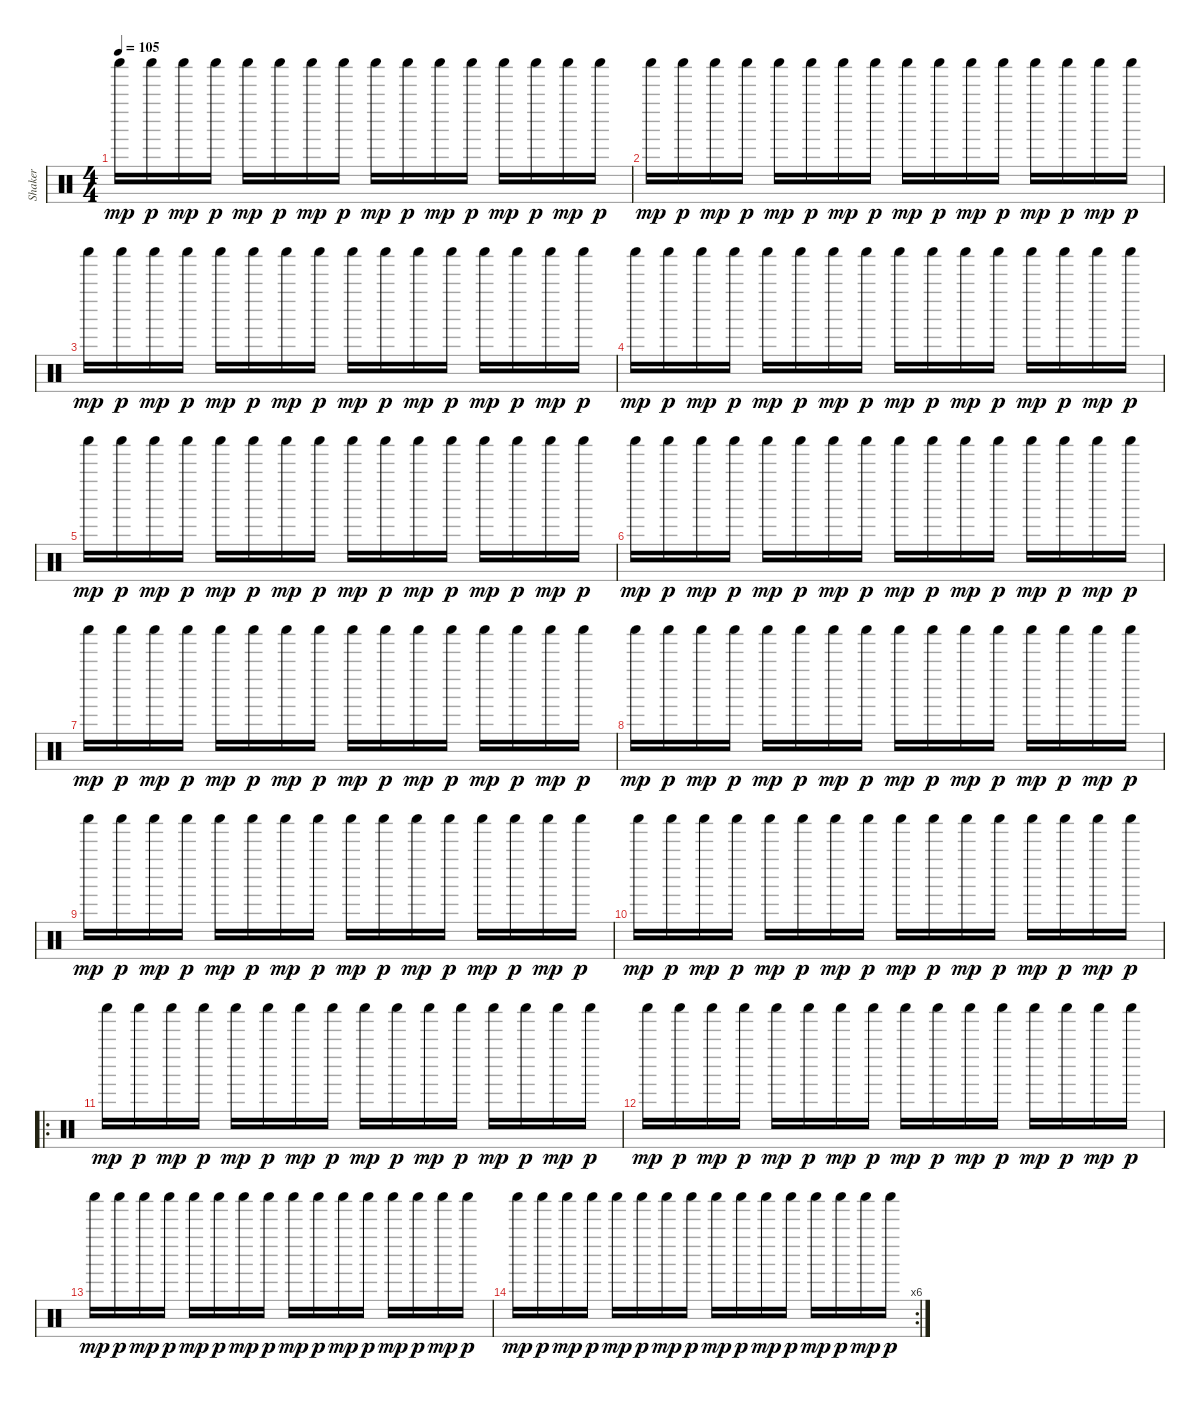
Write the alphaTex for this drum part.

\track ("Shaker" "Shaker") {instrument percussion}
\staff {score}
\articulation defaults
\ts (4 4)
\tempo 105
\clef neutral
\ks c "Shaker (hit)".16{dy mp} "Shaker (hit)".16{dy p} "Shaker (hit)".16{dy mp} "Shaker (hit)".16{dy p} "Shaker (hit)".16{dy mp} "Shaker (hit)".16{dy p} "Shaker (hit)".16{dy mp} "Shaker (hit)".16{dy p} "Shaker (hit)".16{dy mp} "Shaker (hit)".16{dy p} "Shaker (hit)".16{dy mp} "Shaker (hit)".16{dy p} "Shaker (hit)".16{dy mp} "Shaker (hit)".16{dy p} "Shaker (hit)".16{dy mp} "Shaker (hit)".16{dy p}
|
"Shaker (hit)".16{dy mp} "Shaker (hit)".16{dy p} "Shaker (hit)".16{dy mp} "Shaker (hit)".16{dy p} "Shaker (hit)".16{dy mp} "Shaker (hit)".16{dy p} "Shaker (hit)".16{dy mp} "Shaker (hit)".16{dy p} "Shaker (hit)".16{dy mp} "Shaker (hit)".16{dy p} "Shaker (hit)".16{dy mp} "Shaker (hit)".16{dy p} "Shaker (hit)".16{dy mp} "Shaker (hit)".16{dy p} "Shaker (hit)".16{dy mp} "Shaker (hit)".16{dy p} |
"Shaker (hit)".16{dy mp} "Shaker (hit)".16{dy p} "Shaker (hit)".16{dy mp} "Shaker (hit)".16{dy p} "Shaker (hit)".16{dy mp} "Shaker (hit)".16{dy p} "Shaker (hit)".16{dy mp} "Shaker (hit)".16{dy p} "Shaker (hit)".16{dy mp} "Shaker (hit)".16{dy p} "Shaker (hit)".16{dy mp} "Shaker (hit)".16{dy p} "Shaker (hit)".16{dy mp} "Shaker (hit)".16{dy p} "Shaker (hit)".16{dy mp} "Shaker (hit)".16{dy p} |
"Shaker (hit)".16{dy mp} "Shaker (hit)".16{dy p} "Shaker (hit)".16{dy mp} "Shaker (hit)".16{dy p} "Shaker (hit)".16{dy mp} "Shaker (hit)".16{dy p} "Shaker (hit)".16{dy mp} "Shaker (hit)".16{dy p} "Shaker (hit)".16{dy mp} "Shaker (hit)".16{dy p} "Shaker (hit)".16{dy mp} "Shaker (hit)".16{dy p} "Shaker (hit)".16{dy mp} "Shaker (hit)".16{dy p} "Shaker (hit)".16{dy mp} "Shaker (hit)".16{dy p} |
"Shaker (hit)".16{dy mp} "Shaker (hit)".16{dy p} "Shaker (hit)".16{dy mp} "Shaker (hit)".16{dy p} "Shaker (hit)".16{dy mp} "Shaker (hit)".16{dy p} "Shaker (hit)".16{dy mp} "Shaker (hit)".16{dy p} "Shaker (hit)".16{dy mp} "Shaker (hit)".16{dy p} "Shaker (hit)".16{dy mp} "Shaker (hit)".16{dy p} "Shaker (hit)".16{dy mp} "Shaker (hit)".16{dy p} "Shaker (hit)".16{dy mp} "Shaker (hit)".16{dy p} |
"Shaker (hit)".16{dy mp} "Shaker (hit)".16{dy p} "Shaker (hit)".16{dy mp} "Shaker (hit)".16{dy p} "Shaker (hit)".16{dy mp} "Shaker (hit)".16{dy p} "Shaker (hit)".16{dy mp} "Shaker (hit)".16{dy p} "Shaker (hit)".16{dy mp} "Shaker (hit)".16{dy p} "Shaker (hit)".16{dy mp} "Shaker (hit)".16{dy p} "Shaker (hit)".16{dy mp} "Shaker (hit)".16{dy p} "Shaker (hit)".16{dy mp} "Shaker (hit)".16{dy p} |
"Shaker (hit)".16{dy mp} "Shaker (hit)".16{dy p} "Shaker (hit)".16{dy mp} "Shaker (hit)".16{dy p} "Shaker (hit)".16{dy mp} "Shaker (hit)".16{dy p} "Shaker (hit)".16{dy mp} "Shaker (hit)".16{dy p} "Shaker (hit)".16{dy mp} "Shaker (hit)".16{dy p} "Shaker (hit)".16{dy mp} "Shaker (hit)".16{dy p} "Shaker (hit)".16{dy mp} "Shaker (hit)".16{dy p} "Shaker (hit)".16{dy mp} "Shaker (hit)".16{dy p} |
"Shaker (hit)".16{dy mp} "Shaker (hit)".16{dy p} "Shaker (hit)".16{dy mp} "Shaker (hit)".16{dy p} "Shaker (hit)".16{dy mp} "Shaker (hit)".16{dy p} "Shaker (hit)".16{dy mp} "Shaker (hit)".16{dy p} "Shaker (hit)".16{dy mp} "Shaker (hit)".16{dy p} "Shaker (hit)".16{dy mp} "Shaker (hit)".16{dy p} "Shaker (hit)".16{dy mp} "Shaker (hit)".16{dy p} "Shaker (hit)".16{dy mp} "Shaker (hit)".16{dy p} |
"Shaker (hit)".16{dy mp} "Shaker (hit)".16{dy p} "Shaker (hit)".16{dy mp} "Shaker (hit)".16{dy p} "Shaker (hit)".16{dy mp} "Shaker (hit)".16{dy p} "Shaker (hit)".16{dy mp} "Shaker (hit)".16{dy p} "Shaker (hit)".16{dy mp} "Shaker (hit)".16{dy p} "Shaker (hit)".16{dy mp} "Shaker (hit)".16{dy p} "Shaker (hit)".16{dy mp} "Shaker (hit)".16{dy p} "Shaker (hit)".16{dy mp} "Shaker (hit)".16{dy p} |
"Shaker (hit)".16{dy mp} "Shaker (hit)".16{dy p} "Shaker (hit)".16{dy mp} "Shaker (hit)".16{dy p} "Shaker (hit)".16{dy mp} "Shaker (hit)".16{dy p} "Shaker (hit)".16{dy mp} "Shaker (hit)".16{dy p} "Shaker (hit)".16{dy mp} "Shaker (hit)".16{dy p} "Shaker (hit)".16{dy mp} "Shaker (hit)".16{dy p} "Shaker (hit)".16{dy mp} "Shaker (hit)".16{dy p} "Shaker (hit)".16{dy mp} "Shaker (hit)".16{dy p} |
\ro "Shaker (hit)".16{dy mp} "Shaker (hit)".16{dy p} "Shaker (hit)".16{dy mp} "Shaker (hit)".16{dy p} "Shaker (hit)".16{dy mp} "Shaker (hit)".16{dy p} "Shaker (hit)".16{dy mp} "Shaker (hit)".16{dy p} "Shaker (hit)".16{dy mp} "Shaker (hit)".16{dy p} "Shaker (hit)".16{dy mp} "Shaker (hit)".16{dy p} "Shaker (hit)".16{dy mp} "Shaker (hit)".16{dy p} "Shaker (hit)".16{dy mp} "Shaker (hit)".16{dy p}
|
"Shaker (hit)".16{dy mp} "Shaker (hit)".16{dy p} "Shaker (hit)".16{dy mp} "Shaker (hit)".16{dy p} "Shaker (hit)".16{dy mp} "Shaker (hit)".16{dy p} "Shaker (hit)".16{dy mp} "Shaker (hit)".16{dy p} "Shaker (hit)".16{dy mp} "Shaker (hit)".16{dy p} "Shaker (hit)".16{dy mp} "Shaker (hit)".16{dy p} "Shaker (hit)".16{dy mp} "Shaker (hit)".16{dy p} "Shaker (hit)".16{dy mp} "Shaker (hit)".16{dy p} |
"Shaker (hit)".16{dy mp} "Shaker (hit)".16{dy p} "Shaker (hit)".16{dy mp} "Shaker (hit)".16{dy p} "Shaker (hit)".16{dy mp} "Shaker (hit)".16{dy p} "Shaker (hit)".16{dy mp} "Shaker (hit)".16{dy p} "Shaker (hit)".16{dy mp} "Shaker (hit)".16{dy p} "Shaker (hit)".16{dy mp} "Shaker (hit)".16{dy p} "Shaker (hit)".16{dy mp} "Shaker (hit)".16{dy p} "Shaker (hit)".16{dy mp} "Shaker (hit)".16{dy p} |
\rc 6 "Shaker (hit)".16{dy mp} "Shaker (hit)".16{dy p} "Shaker (hit)".16{dy mp} "Shaker (hit)".16{dy p} "Shaker (hit)".16{dy mp} "Shaker (hit)".16{dy p} "Shaker (hit)".16{dy mp} "Shaker (hit)".16{dy p} "Shaker (hit)".16{dy mp} "Shaker (hit)".16{dy p} "Shaker (hit)".16{dy mp} "Shaker (hit)".16{dy p} "Shaker (hit)".16{dy mp} "Shaker (hit)".16{dy p} "Shaker (hit)".16{dy mp} "Shaker (hit)".16{dy p}
